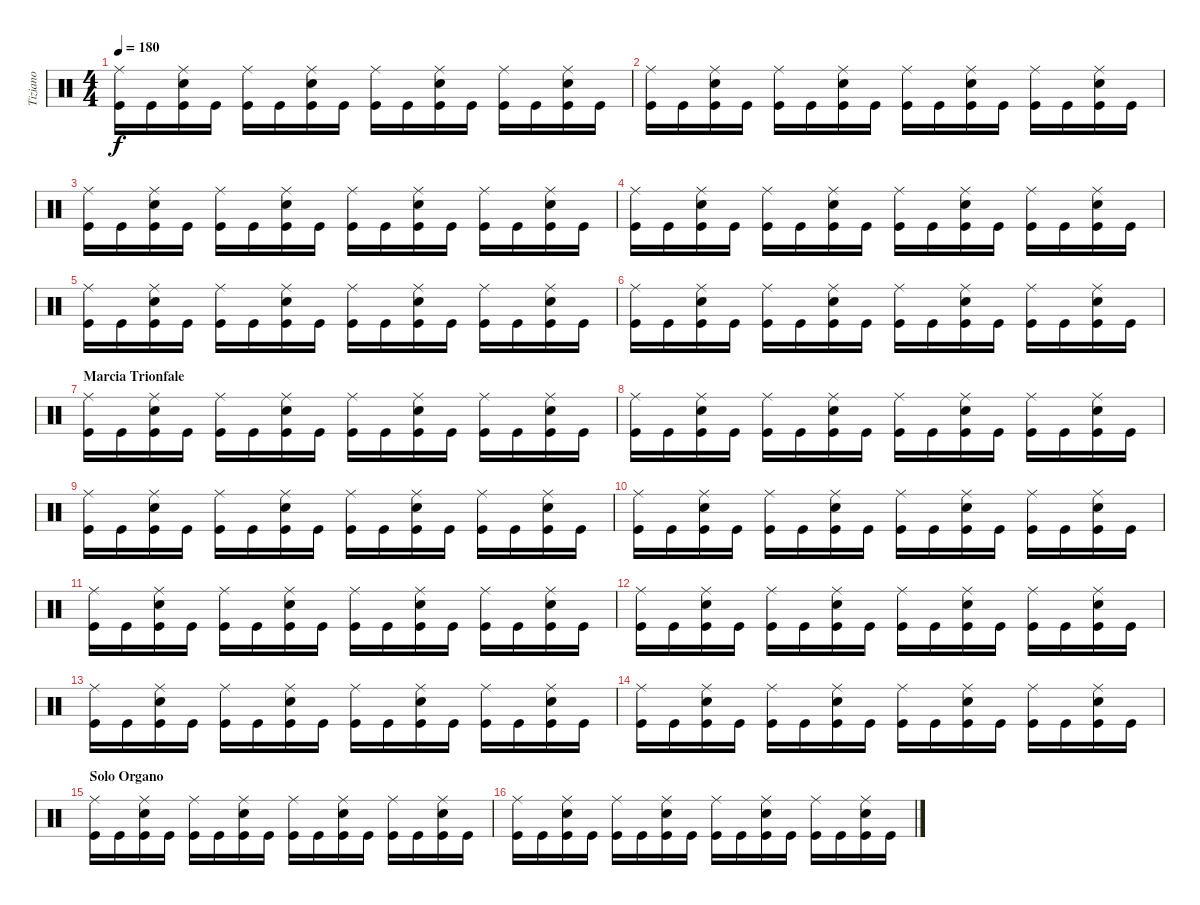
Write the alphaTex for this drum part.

\track ("Tiziano" "Tiziano") {instrument percussion}
\staff {score}
\articulation defaults
\ts (4 4)
\tempo 180
\clef neutral
\ks c
("Kick (hit)" "Ride (middle)").16{dy f} "Kick (hit)".16 ("Kick (hit)" "Snare (hit) 2" "Ride (middle)").16 "Kick (hit)".16 ("Kick (hit)" "Ride (middle)").16 "Kick (hit)".16 ("Kick (hit)" "Snare (hit) 2" "Ride (middle)").16 "Kick (hit)".16 ("Kick (hit)" "Ride (middle)").16 "Kick (hit)".16 ("Kick (hit)" "Snare (hit) 2" "Ride (middle)").16 "Kick (hit)".16 ("Kick (hit)" "Ride (middle)").16 "Kick (hit)".16 ("Kick (hit)" "Snare (hit) 2" "Ride (middle)").16 "Kick (hit)".16 |
("Kick (hit)" "Ride (middle)").16 "Kick (hit)".16 ("Kick (hit)" "Snare (hit) 2" "Ride (middle)").16 "Kick (hit)".16 ("Kick (hit)" "Ride (middle)").16 "Kick (hit)".16 ("Kick (hit)" "Snare (hit) 2" "Ride (middle)").16 "Kick (hit)".16 ("Kick (hit)" "Ride (middle)").16 "Kick (hit)".16 ("Kick (hit)" "Snare (hit) 2" "Ride (middle)").16 "Kick (hit)".16 ("Kick (hit)" "Ride (middle)").16 "Kick (hit)".16 ("Kick (hit)" "Snare (hit) 2" "Ride (middle)").16 "Kick (hit)".16 |
("Kick (hit)" "Ride (middle)").16 "Kick (hit)".16 ("Kick (hit)" "Snare (hit) 2" "Ride (middle)").16 "Kick (hit)".16 ("Kick (hit)" "Ride (middle)").16 "Kick (hit)".16 ("Kick (hit)" "Snare (hit) 2" "Ride (middle)").16 "Kick (hit)".16 ("Kick (hit)" "Ride (middle)").16 "Kick (hit)".16 ("Kick (hit)" "Snare (hit) 2" "Ride (middle)").16 "Kick (hit)".16 ("Kick (hit)" "Ride (middle)").16 "Kick (hit)".16 ("Kick (hit)" "Snare (hit) 2" "Ride (middle)").16 "Kick (hit)".16 |
("Kick (hit)" "Ride (middle)").16 "Kick (hit)".16 ("Kick (hit)" "Snare (hit) 2" "Ride (middle)").16 "Kick (hit)".16 ("Kick (hit)" "Ride (middle)").16 "Kick (hit)".16 ("Kick (hit)" "Snare (hit) 2" "Ride (middle)").16 "Kick (hit)".16 ("Kick (hit)" "Ride (middle)").16 "Kick (hit)".16 ("Kick (hit)" "Snare (hit) 2" "Ride (middle)").16 "Kick (hit)".16 ("Kick (hit)" "Ride (middle)").16 "Kick (hit)".16 ("Kick (hit)" "Snare (hit) 2" "Ride (middle)").16 "Kick (hit)".16 |
("Kick (hit)" "Ride (middle)").16 "Kick (hit)".16 ("Kick (hit)" "Snare (hit) 2" "Ride (middle)").16 "Kick (hit)".16 ("Kick (hit)" "Ride (middle)").16 "Kick (hit)".16 ("Kick (hit)" "Snare (hit) 2" "Ride (middle)").16 "Kick (hit)".16 ("Kick (hit)" "Ride (middle)").16 "Kick (hit)".16 ("Kick (hit)" "Snare (hit) 2" "Ride (middle)").16 "Kick (hit)".16 ("Kick (hit)" "Ride (middle)").16 "Kick (hit)".16 ("Kick (hit)" "Snare (hit) 2" "Ride (middle)").16 "Kick (hit)".16 |
("Kick (hit)" "Ride (middle)").16 "Kick (hit)".16 ("Kick (hit)" "Snare (hit) 2" "Ride (middle)").16 "Kick (hit)".16 ("Kick (hit)" "Ride (middle)").16 "Kick (hit)".16 ("Kick (hit)" "Snare (hit) 2" "Ride (middle)").16 "Kick (hit)".16 ("Kick (hit)" "Ride (middle)").16 "Kick (hit)".16 ("Kick (hit)" "Snare (hit) 2" "Ride (middle)").16 "Kick (hit)".16 ("Kick (hit)" "Ride (middle)").16 "Kick (hit)".16 ("Kick (hit)" "Snare (hit) 2" "Ride (middle)").16 "Kick (hit)".16 |
\section ("" "Marcia Trionfale")
("Kick (hit)" "Ride (middle)").16 "Kick (hit)".16 ("Kick (hit)" "Snare (hit) 2" "Ride (middle)").16 "Kick (hit)".16 ("Kick (hit)" "Ride (middle)").16 "Kick (hit)".16 ("Kick (hit)" "Snare (hit) 2" "Ride (middle)").16 "Kick (hit)".16 ("Kick (hit)" "Ride (middle)").16 "Kick (hit)".16 ("Kick (hit)" "Snare (hit) 2" "Ride (middle)").16 "Kick (hit)".16 ("Kick (hit)" "Ride (middle)").16 "Kick (hit)".16 ("Kick (hit)" "Snare (hit) 2" "Ride (middle)").16 "Kick (hit)".16 |
("Kick (hit)" "Ride (middle)").16 "Kick (hit)".16 ("Kick (hit)" "Snare (hit) 2" "Ride (middle)").16 "Kick (hit)".16 ("Kick (hit)" "Ride (middle)").16 "Kick (hit)".16 ("Kick (hit)" "Snare (hit) 2" "Ride (middle)").16 "Kick (hit)".16 ("Kick (hit)" "Ride (middle)").16 "Kick (hit)".16 ("Kick (hit)" "Snare (hit) 2" "Ride (middle)").16 "Kick (hit)".16 ("Kick (hit)" "Ride (middle)").16 "Kick (hit)".16 ("Kick (hit)" "Snare (hit) 2" "Ride (middle)").16 "Kick (hit)".16 |
("Kick (hit)" "Ride (middle)").16 "Kick (hit)".16 ("Kick (hit)" "Snare (hit) 2" "Ride (middle)").16 "Kick (hit)".16 ("Kick (hit)" "Ride (middle)").16 "Kick (hit)".16 ("Kick (hit)" "Snare (hit) 2" "Ride (middle)").16 "Kick (hit)".16 ("Kick (hit)" "Ride (middle)").16 "Kick (hit)".16 ("Kick (hit)" "Snare (hit) 2" "Ride (middle)").16 "Kick (hit)".16 ("Kick (hit)" "Ride (middle)").16 "Kick (hit)".16 ("Kick (hit)" "Snare (hit) 2" "Ride (middle)").16 "Kick (hit)".16 |
("Kick (hit)" "Ride (middle)").16 "Kick (hit)".16 ("Kick (hit)" "Snare (hit) 2" "Ride (middle)").16 "Kick (hit)".16 ("Kick (hit)" "Ride (middle)").16 "Kick (hit)".16 ("Kick (hit)" "Snare (hit) 2" "Ride (middle)").16 "Kick (hit)".16 ("Kick (hit)" "Ride (middle)").16 "Kick (hit)".16 ("Kick (hit)" "Snare (hit) 2" "Ride (middle)").16 "Kick (hit)".16 ("Kick (hit)" "Ride (middle)").16 "Kick (hit)".16 ("Kick (hit)" "Snare (hit) 2" "Ride (middle)").16 "Kick (hit)".16 |
("Kick (hit)" "Ride (middle)").16 "Kick (hit)".16 ("Kick (hit)" "Snare (hit) 2" "Ride (middle)").16 "Kick (hit)".16 ("Kick (hit)" "Ride (middle)").16 "Kick (hit)".16 ("Kick (hit)" "Snare (hit) 2" "Ride (middle)").16 "Kick (hit)".16 ("Kick (hit)" "Ride (middle)").16 "Kick (hit)".16 ("Kick (hit)" "Snare (hit) 2" "Ride (middle)").16 "Kick (hit)".16 ("Kick (hit)" "Ride (middle)").16 "Kick (hit)".16 ("Kick (hit)" "Snare (hit) 2" "Ride (middle)").16 "Kick (hit)".16 |
("Kick (hit)" "Ride (middle)").16 "Kick (hit)".16 ("Kick (hit)" "Snare (hit) 2" "Ride (middle)").16 "Kick (hit)".16 ("Kick (hit)" "Ride (middle)").16 "Kick (hit)".16 ("Kick (hit)" "Snare (hit) 2" "Ride (middle)").16 "Kick (hit)".16 ("Kick (hit)" "Ride (middle)").16 "Kick (hit)".16 ("Kick (hit)" "Snare (hit) 2" "Ride (middle)").16 "Kick (hit)".16 ("Kick (hit)" "Ride (middle)").16 "Kick (hit)".16 ("Kick (hit)" "Snare (hit) 2" "Ride (middle)").16 "Kick (hit)".16 |
("Kick (hit)" "Ride (middle)").16 "Kick (hit)".16 ("Kick (hit)" "Snare (hit) 2" "Ride (middle)").16 "Kick (hit)".16 ("Kick (hit)" "Ride (middle)").16 "Kick (hit)".16 ("Kick (hit)" "Snare (hit) 2" "Ride (middle)").16 "Kick (hit)".16 ("Kick (hit)" "Ride (middle)").16 "Kick (hit)".16 ("Kick (hit)" "Snare (hit) 2" "Ride (middle)").16 "Kick (hit)".16 ("Kick (hit)" "Ride (middle)").16 "Kick (hit)".16 ("Kick (hit)" "Snare (hit) 2" "Ride (middle)").16 "Kick (hit)".16 |
("Kick (hit)" "Ride (middle)").16 "Kick (hit)".16 ("Kick (hit)" "Snare (hit) 2" "Ride (middle)").16 "Kick (hit)".16 ("Kick (hit)" "Ride (middle)").16 "Kick (hit)".16 ("Kick (hit)" "Snare (hit) 2" "Ride (middle)").16 "Kick (hit)".16 ("Kick (hit)" "Ride (middle)").16 "Kick (hit)".16 ("Kick (hit)" "Snare (hit) 2" "Ride (middle)").16 "Kick (hit)".16 ("Kick (hit)" "Ride (middle)").16 "Kick (hit)".16 ("Kick (hit)" "Snare (hit) 2" "Ride (middle)").16 "Kick (hit)".16 |
\section ("" "Solo Organo")
("Kick (hit)" "Ride (middle)").16 "Kick (hit)".16 ("Kick (hit)" "Snare (hit) 2" "Ride (middle)").16 "Kick (hit)".16 ("Kick (hit)" "Ride (middle)").16 "Kick (hit)".16 ("Kick (hit)" "Snare (hit) 2" "Ride (middle)").16 "Kick (hit)".16 ("Kick (hit)" "Ride (middle)").16 "Kick (hit)".16 ("Kick (hit)" "Snare (hit) 2" "Ride (middle)").16 "Kick (hit)".16 ("Kick (hit)" "Ride (middle)").16 "Kick (hit)".16 ("Kick (hit)" "Snare (hit) 2" "Ride (middle)").16 "Kick (hit)".16 |
("Kick (hit)" "Ride (middle)").16 "Kick (hit)".16 ("Kick (hit)" "Snare (hit) 2" "Ride (middle)").16 "Kick (hit)".16 ("Kick (hit)" "Ride (middle)").16 "Kick (hit)".16 ("Kick (hit)" "Snare (hit) 2" "Ride (middle)").16 "Kick (hit)".16 ("Kick (hit)" "Ride (middle)").16 "Kick (hit)".16 ("Kick (hit)" "Snare (hit) 2" "Ride (middle)").16 "Kick (hit)".16 ("Kick (hit)" "Ride (middle)").16 "Kick (hit)".16 ("Kick (hit)" "Snare (hit) 2" "Ride (middle)").16 "Kick (hit)".16
